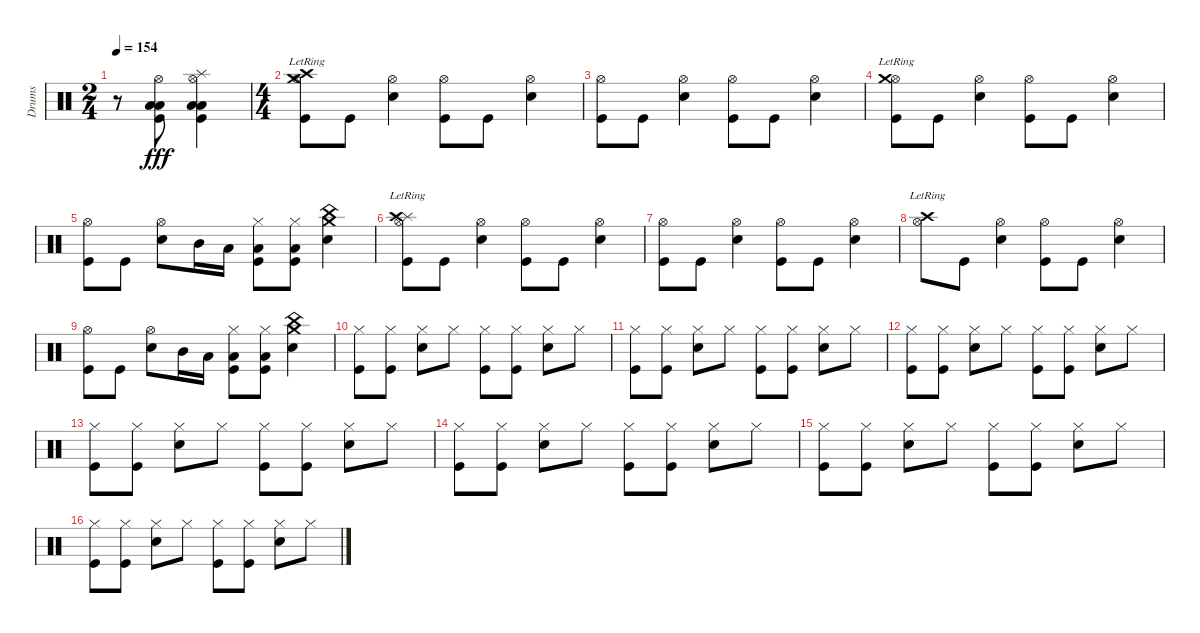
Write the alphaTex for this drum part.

\track ("Drums" "Drums") {instrument percussion}
\staff {score}
\articulation defaults
\ts (2 4)
\tempo 154
\clef neutral
\ks c
r.8{dy fff} ("Hi-Hat (open)" "Low Floor Tom (hit)" "Low Tom (hit)" "Kick (hit)").8 ("Hi-Hat (open)" "Low Floor Tom (hit)" "Low Tom (hit)" "Kick (hit)" "Splash (hit)").4 |
\ts (4 4)
("Crash high (hit)"{lr} "Hi-Hat (open)" "Crash medium (hit)"{lr} "Kick (hit)").8 "Kick (hit)".8 ("Hi-Hat (open)" "Snare (hit) 2").4 ("Hi-Hat (open)" "Kick (hit)").8 "Kick (hit)".8 ("Hi-Hat (open)" "Snare (hit) 2").4 |
("Hi-Hat (open)" "Kick (hit)").8 "Kick (hit)".8 ("Hi-Hat (open)" "Snare (hit) 2").4 ("Hi-Hat (open)" "Kick (hit)").8 "Kick (hit)".8 ("Hi-Hat (open)" "Snare (hit) 2").4 |
("Hi-Hat (open)" "Crash medium (hit)"{lr} "Kick (hit)").8 "Kick (hit)".8 ("Hi-Hat (open)" "Snare (hit) 2").4 ("Hi-Hat (open)" "Kick (hit)").8 "Kick (hit)".8 ("Hi-Hat (open)" "Snare (hit) 2").4 |
("Hi-Hat (open)" "Kick (hit)").8 "Kick (hit)".8 ("Hi-Hat (open)" "Snare (hit) 2").8 "Mid Tom (hit)".16 "Low Tom (hit)".16 ("Hi-Hat (closed)" "Low Floor Tom (hit)" "Kick (hit)").8 ("Hi-Hat (closed)" "Low Floor Tom (hit)" "Kick (hit)").8 ("Crash medium (hit)" "China (hit)" "Snare (hit) 2").4 |
("Splash (hit)" "Hi-Hat (open)" "Crash high (hit)"{lr} "Kick (hit)").8 "Kick (hit)".8 ("Hi-Hat (open)" "Snare (hit) 2").4 ("Hi-Hat (open)" "Kick (hit)").8 "Kick (hit)".8 ("Hi-Hat (open)" "Snare (hit) 2").4 |
("Hi-Hat (open)" "Kick (hit)").8 "Kick (hit)".8 ("Hi-Hat (open)" "Snare (hit) 2").4 ("Hi-Hat (open)" "Kick (hit)").8 "Kick (hit)".8 ("Hi-Hat (open)" "Snare (hit) 2").4 |
("Crash high (hit)"{lr} "Hi-Hat (open)").8 "Kick (hit)".8 ("Hi-Hat (open)" "Snare (hit) 2").4 ("Hi-Hat (open)" "Kick (hit)").8 "Kick (hit)".8 ("Hi-Hat (open)" "Snare (hit) 2").4 |
("Hi-Hat (open)" "Kick (hit)").8 "Kick (hit)".8 ("Hi-Hat (open)" "Snare (hit) 2").8 "Mid Tom (hit)".16 "Low Tom (hit)".16 ("Hi-Hat (closed)" "Low Floor Tom (hit)" "Kick (hit)").8 ("Hi-Hat (closed)" "Low Floor Tom (hit)" "Kick (hit)").8 ("Crash medium (hit)" "China (hit)" "Snare (hit) 2").4 |
("Hi-Hat (closed)" "Kick (hit)").8 ("Hi-Hat (closed)" "Kick (hit)").8 ("Hi-Hat (closed)" "Snare (hit) 2").8 "Hi-Hat (closed)".8 ("Hi-Hat (closed)" "Kick (hit)").8 ("Hi-Hat (closed)" "Kick (hit)").8 ("Hi-Hat (closed)" "Snare (hit) 2").8 "Hi-Hat (closed)".8 |
("Hi-Hat (closed)" "Kick (hit)").8 ("Hi-Hat (closed)" "Kick (hit)").8 ("Hi-Hat (closed)" "Snare (hit) 2").8 "Hi-Hat (closed)".8 ("Hi-Hat (closed)" "Kick (hit)").8 ("Hi-Hat (closed)" "Kick (hit)").8 ("Hi-Hat (closed)" "Snare (hit) 2").8 "Hi-Hat (closed)".8 |
("Hi-Hat (closed)" "Kick (hit)").8 ("Hi-Hat (closed)" "Kick (hit)").8 ("Hi-Hat (closed)" "Snare (hit) 2").8 "Hi-Hat (closed)".8 ("Hi-Hat (closed)" "Kick (hit)").8 ("Hi-Hat (closed)" "Kick (hit)").8 ("Hi-Hat (closed)" "Snare (hit) 2").8 "Hi-Hat (closed)".8 |
("Hi-Hat (closed)" "Kick (hit)").8 ("Hi-Hat (closed)" "Kick (hit)").8 ("Hi-Hat (closed)" "Snare (hit) 2").8 "Hi-Hat (closed)".8 ("Hi-Hat (closed)" "Kick (hit)").8 ("Hi-Hat (closed)" "Kick (hit)").8 ("Hi-Hat (closed)" "Snare (hit) 2").8 "Hi-Hat (closed)".8 |
("Hi-Hat (closed)" "Kick (hit)").8 ("Hi-Hat (closed)" "Kick (hit)").8 ("Hi-Hat (closed)" "Snare (hit) 2").8 "Hi-Hat (closed)".8 ("Hi-Hat (closed)" "Kick (hit)").8 ("Hi-Hat (closed)" "Kick (hit)").8 ("Hi-Hat (closed)" "Snare (hit) 2").8 "Hi-Hat (closed)".8 |
("Hi-Hat (closed)" "Kick (hit)").8 ("Hi-Hat (closed)" "Kick (hit)").8 ("Hi-Hat (closed)" "Snare (hit) 2").8 "Hi-Hat (closed)".8 ("Hi-Hat (closed)" "Kick (hit)").8 ("Hi-Hat (closed)" "Kick (hit)").8 ("Hi-Hat (closed)" "Snare (hit) 2").8 "Hi-Hat (closed)".8 |
("Hi-Hat (closed)" "Kick (hit)").8 ("Hi-Hat (closed)" "Kick (hit)").8 ("Hi-Hat (closed)" "Snare (hit) 2").8 "Hi-Hat (closed)".8 ("Hi-Hat (closed)" "Kick (hit)").8 ("Hi-Hat (closed)" "Kick (hit)").8 ("Hi-Hat (closed)" "Snare (hit) 2").8 "Hi-Hat (closed)".8
